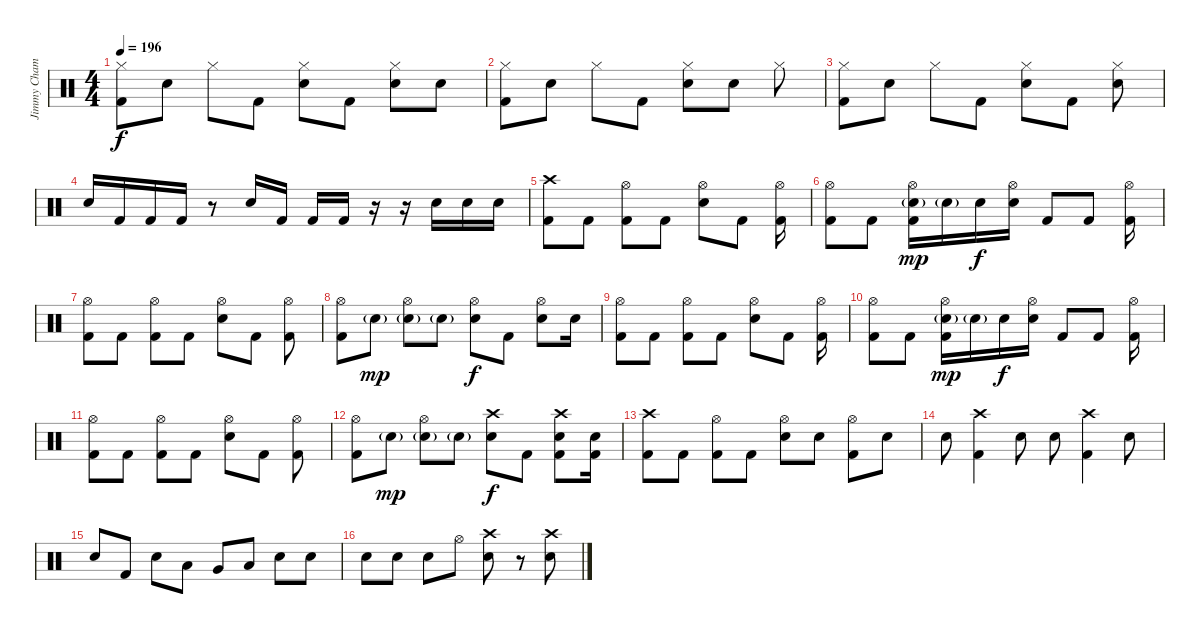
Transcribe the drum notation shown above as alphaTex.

\track ("Jimmy Chamberlin" "Jimmy Cham") {instrument percussion}
\staff {score}
\articulation defaults
\ts (4 4)
\tempo 196
\clef neutral
\ks c
("Hi-Hat (closed)" "Kick (hit) 2").8{dy f} "Electric Snare (hit)".8 "Hi-Hat (closed)".8 "Kick (hit) 2".8 ("Hi-Hat (closed)" "Electric Snare (hit)").8 "Kick (hit) 2".8 ("Hi-Hat (closed)" "Electric Snare (hit)").8 "Electric Snare (hit)".8 |
("Hi-Hat (closed)" "Kick (hit) 2").8 "Electric Snare (hit)".8 "Hi-Hat (closed)".8 "Kick (hit) 2".8 ("Hi-Hat (closed)" "Electric Snare (hit)").8 "Electric Snare (hit)".8 "Hi-Hat (closed)".8 |
("Hi-Hat (closed)" "Kick (hit) 2").8 "Electric Snare (hit)".8 "Hi-Hat (closed)".8 "Kick (hit) 2".8 ("Hi-Hat (closed)" "Electric Snare (hit)").8 "Kick (hit) 2".8 ("Hi-Hat (closed)" "Electric Snare (hit)").8 |
"Electric Snare (hit)".16 "Kick (hit) 2".16 "Kick (hit) 2".16 "Kick (hit) 2".16 r.8 "Electric Snare (hit)".16 "Kick (hit) 2".16 "Kick (hit) 2".16 "Kick (hit) 2".16 r.16 r.16 "Electric Snare (hit)".16 "Electric Snare (hit)".16 "Electric Snare (hit)".16 |
("Crash high (hit)" "Kick (hit) 2").8 "Kick (hit) 2".8 ("Hi-Hat (open)" "Kick (hit) 2").8 "Kick (hit) 2".8 ("Hi-Hat (open)" "Electric Snare (hit)").8 "Kick (hit) 2".8 ("Hi-Hat (open)" "Kick (hit) 2").16 |
("Hi-Hat (open)" "Kick (hit) 2").8 "Kick (hit) 2".8 ("Hi-Hat (open)" "Electric Snare (hit)"{g} "Kick (hit) 2").16{dy mp} "Electric Snare (hit)"{g}.16 "Electric Snare (hit)".16{dy f} ("Hi-Hat (open)" "Electric Snare (hit)").16 "Kick (hit) 2".8 "Kick (hit) 2".8 ("Hi-Hat (open)" "Kick (hit) 2").16 |
("Hi-Hat (open)" "Kick (hit) 2").8 "Kick (hit) 2".8 ("Hi-Hat (open)" "Kick (hit) 2").8 "Kick (hit) 2".8 ("Hi-Hat (open)" "Electric Snare (hit)").8 "Kick (hit) 2".8 ("Hi-Hat (open)" "Kick (hit) 2").8 |
("Hi-Hat (open)" "Kick (hit) 2").8 "Electric Snare (hit)"{g}.8{dy mp} ("Hi-Hat (open)" "Electric Snare (hit)"{g}).8 "Electric Snare (hit)"{g}.8 ("Hi-Hat (open)" "Electric Snare (hit)").8{dy f} "Kick (hit) 2".8 ("Hi-Hat (open)" "Electric Snare (hit)").8 "Electric Snare (hit)".16 |
("Hi-Hat (open)" "Kick (hit) 2").8 "Kick (hit) 2".8 ("Hi-Hat (open)" "Kick (hit) 2").8 "Kick (hit) 2".8 ("Hi-Hat (open)" "Electric Snare (hit)").8 "Kick (hit) 2".8 ("Hi-Hat (open)" "Kick (hit) 2").16 |
("Hi-Hat (open)" "Kick (hit) 2").8 "Kick (hit) 2".8 ("Hi-Hat (open)" "Electric Snare (hit)"{g} "Kick (hit) 2").16{dy mp} "Electric Snare (hit)"{g}.16 "Electric Snare (hit)".16{dy f} ("Hi-Hat (open)" "Electric Snare (hit)").16 "Kick (hit) 2".8 "Kick (hit) 2".8 ("Hi-Hat (open)" "Kick (hit) 2").16 |
("Hi-Hat (open)" "Kick (hit) 2").8 "Kick (hit) 2".8 ("Hi-Hat (open)" "Kick (hit) 2").8 "Kick (hit) 2".8 ("Hi-Hat (open)" "Electric Snare (hit)").8 "Kick (hit) 2".8 ("Hi-Hat (open)" "Kick (hit) 2").8 |
("Hi-Hat (open)" "Kick (hit) 2").8 "Electric Snare (hit)"{g}.8{dy mp} ("Hi-Hat (open)" "Electric Snare (hit)"{g}).8 "Electric Snare (hit)"{g}.8 ("Crash high (hit)" "Electric Snare (hit)").8{dy f} "Kick (hit) 2".8 ("Crash high (hit)" "Electric Snare (hit)" "Kick (hit) 2").8 ("Electric Snare (hit)" "Kick (hit) 2").16 |
("Crash high (hit)" "Kick (hit) 2").8 "Kick (hit) 2".8 ("Hi-Hat (open)" "Kick (hit) 2").8 "Kick (hit) 2".8 ("Hi-Hat (open)" "Electric Snare (hit)").8 "Electric Snare (hit)".8 ("Hi-Hat (open)" "Kick (hit) 2").8 "Electric Snare (hit)".8 |
"Electric Snare (hit)".8 ("Crash high (hit)" "Kick (hit) 2").4 "Electric Snare (hit)".8 "Electric Snare (hit)".8 ("Crash high (hit)" "Kick (hit) 2").4 "Electric Snare (hit)".8 |
"Electric Snare (hit)".8 "Kick (hit) 2".8 "Electric Snare (hit)".8 "Low Tom (hit)".8 "Very Low Tom (hit)".8 "Low Floor Tom (hit)".8 "Electric Snare (hit)".8 "Electric Snare (hit)".8 |
"Electric Snare (hit)".8 "Electric Snare (hit)".8 "Electric Snare (hit)".8 "Hi-Hat (open)".8 ("Crash high (hit)" "Electric Snare (hit)").8 r.8 ("Crash high (hit)" "Electric Snare (hit)").8
